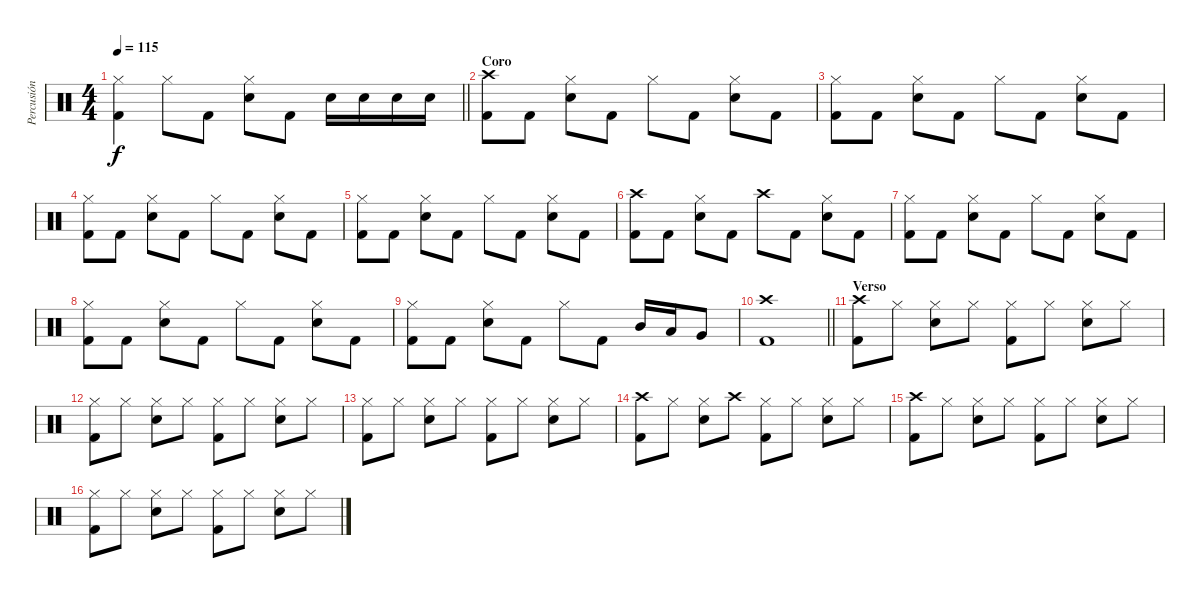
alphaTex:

\track ("Percusión" "Percusión") {instrument percussion}
\staff {score}
\articulation defaults
\ts (4 4)
\tempo 115
\clef neutral
\barLineRight lightlight
\ks c
("Hi-Hat (closed)" "Kick (hit) 2").4{dy f} "Hi-Hat (closed)".8 "Kick (hit) 2".8 ("Hi-Hat (closed)" "Snare (hit) 2").8 "Kick (hit) 2".8 "Snare (hit) 2".16 "Snare (hit) 2".16 "Snare (hit) 2".16 "Snare (hit) 2".16 |
\section ("" "Coro")
("Crash high (hit)" "Kick (hit) 2").8 "Kick (hit) 2".8 ("Hi-Hat (closed)" "Snare (hit) 2").8 "Kick (hit) 2".8 "Hi-Hat (closed)".8 "Kick (hit) 2".8 ("Hi-Hat (closed)" "Snare (hit) 2").8 "Kick (hit) 2".8 |
("Hi-Hat (closed)" "Kick (hit) 2").8 "Kick (hit) 2".8 ("Hi-Hat (closed)" "Snare (hit) 2").8 "Kick (hit) 2".8 "Hi-Hat (closed)".8 "Kick (hit) 2".8 ("Hi-Hat (closed)" "Snare (hit) 2").8 "Kick (hit) 2".8 |
("Hi-Hat (closed)" "Kick (hit) 2").8 "Kick (hit) 2".8 ("Hi-Hat (closed)" "Snare (hit) 2").8 "Kick (hit) 2".8 "Hi-Hat (closed)".8 "Kick (hit) 2".8 ("Hi-Hat (closed)" "Snare (hit) 2").8 "Kick (hit) 2".8 |
("Hi-Hat (closed)" "Kick (hit) 2").8 "Kick (hit) 2".8 ("Hi-Hat (closed)" "Snare (hit) 2").8 "Kick (hit) 2".8 "Hi-Hat (closed)".8 "Kick (hit) 2".8 ("Hi-Hat (closed)" "Snare (hit) 2").8 "Kick (hit) 2".8 |
("Crash high (hit)" "Kick (hit) 2").8 "Kick (hit) 2".8 ("Hi-Hat (closed)" "Snare (hit) 2").8 "Kick (hit) 2".8 "Crash high (hit)".8 "Kick (hit) 2".8 ("Hi-Hat (closed)" "Snare (hit) 2").8 "Kick (hit) 2".8 |
("Hi-Hat (closed)" "Kick (hit) 2").8 "Kick (hit) 2".8 ("Hi-Hat (closed)" "Snare (hit) 2").8 "Kick (hit) 2".8 "Hi-Hat (closed)".8 "Kick (hit) 2".8 ("Hi-Hat (closed)" "Snare (hit) 2").8 "Kick (hit) 2".8 |
("Hi-Hat (closed)" "Kick (hit) 2").8 "Kick (hit) 2".8 ("Hi-Hat (closed)" "Snare (hit) 2").8 "Kick (hit) 2".8 "Hi-Hat (closed)".8 "Kick (hit) 2".8 ("Hi-Hat (closed)" "Snare (hit) 2").8 "Kick (hit) 2".8 |
("Hi-Hat (closed)" "Kick (hit) 2").8 "Kick (hit) 2".8 ("Hi-Hat (closed)" "Snare (hit) 2").8 "Kick (hit) 2".8 "Hi-Hat (closed)".8 "Kick (hit) 2".8 "Mid Tom (hit)".16 "Low Tom (hit)".16 "Very Low Tom (hit)".8 |
\barLineRight lightlight
("Crash high (hit)" "Kick (hit) 2").1 |
\section ("" "Verso")
("Crash high (hit)" "Kick (hit) 2").8 "Hi-Hat (closed)".8 ("Hi-Hat (closed)" "Snare (hit) 2").8 "Hi-Hat (closed)".8 ("Hi-Hat (closed)" "Kick (hit) 2").8 "Hi-Hat (closed)".8 ("Hi-Hat (closed)" "Snare (hit) 2").8 "Hi-Hat (closed)".8 |
("Hi-Hat (closed)" "Kick (hit) 2").8 "Hi-Hat (closed)".8 ("Hi-Hat (closed)" "Snare (hit) 2").8 "Hi-Hat (closed)".8 ("Hi-Hat (closed)" "Kick (hit) 2").8 "Hi-Hat (closed)".8 ("Hi-Hat (closed)" "Snare (hit) 2").8 "Hi-Hat (closed)".8 |
("Hi-Hat (closed)" "Kick (hit) 2").8 "Hi-Hat (closed)".8 ("Hi-Hat (closed)" "Snare (hit) 2").8 "Hi-Hat (closed)".8 ("Hi-Hat (closed)" "Kick (hit) 2").8 "Hi-Hat (closed)".8 ("Hi-Hat (closed)" "Snare (hit) 2").8 "Hi-Hat (closed)".8 |
("Crash high (hit)" "Kick (hit) 2").8 "Hi-Hat (closed)".8 ("Hi-Hat (closed)" "Snare (hit) 2").8 "Crash high (hit)".8 ("Hi-Hat (closed)" "Kick (hit) 2").8 "Hi-Hat (closed)".8 ("Hi-Hat (closed)" "Snare (hit) 2").8 "Hi-Hat (closed)".8 |
("Crash high (hit)" "Kick (hit) 2").8 "Hi-Hat (closed)".8 ("Hi-Hat (closed)" "Snare (hit) 2").8 "Hi-Hat (closed)".8 ("Hi-Hat (closed)" "Kick (hit) 2").8 "Hi-Hat (closed)".8 ("Hi-Hat (closed)" "Snare (hit) 2").8 "Hi-Hat (closed)".8 |
("Hi-Hat (closed)" "Kick (hit) 2").8 "Hi-Hat (closed)".8 ("Hi-Hat (closed)" "Snare (hit) 2").8 "Hi-Hat (closed)".8 ("Hi-Hat (closed)" "Kick (hit) 2").8 "Hi-Hat (closed)".8 ("Hi-Hat (closed)" "Snare (hit) 2").8 "Hi-Hat (closed)".8
